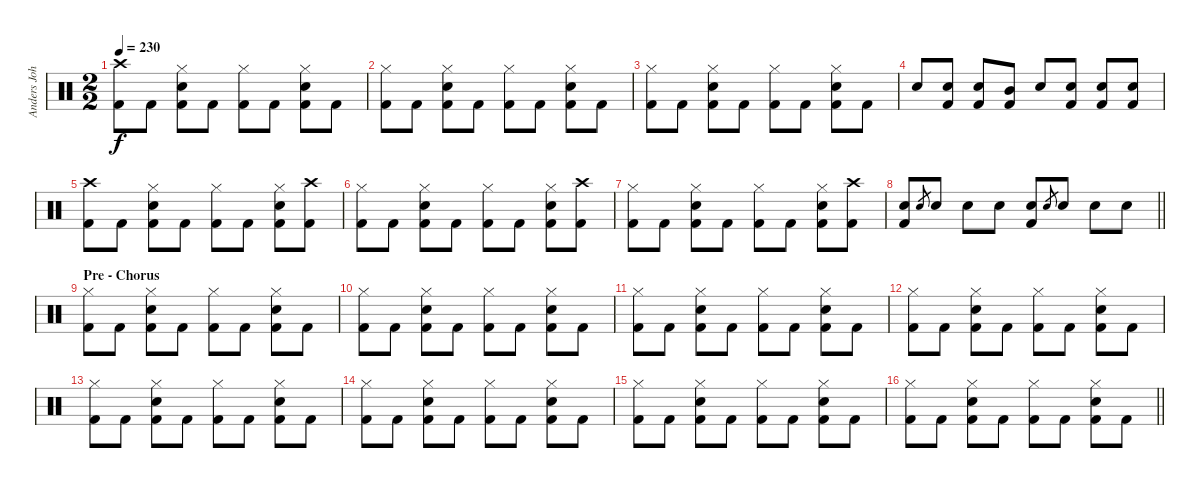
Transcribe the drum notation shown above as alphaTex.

\track ("Anders Johansson" "Anders Joh") {instrument percussion}
\staff {score}
\articulation defaults
\ts (2 2)
\tempo 230
\clef neutral
\ks c
("Crash high (hit)" "Kick (hit) 2").8{dy f} "Kick (hit) 2".8 ("Electric Snare (hit)" "Hi-Hat (closed)" "Kick (hit) 2").8 "Kick (hit) 2".8 ("Hi-Hat (closed)" "Kick (hit) 2").8 "Kick (hit) 2".8 ("Electric Snare (hit)" "Hi-Hat (closed)" "Kick (hit) 2").8 "Kick (hit) 2".8 |
("Hi-Hat (closed)" "Kick (hit) 2").8 "Kick (hit) 2".8 ("Electric Snare (hit)" "Hi-Hat (closed)" "Kick (hit) 2").8 "Kick (hit) 2".8 ("Hi-Hat (closed)" "Kick (hit) 2").8 "Kick (hit) 2".8 ("Electric Snare (hit)" "Hi-Hat (closed)" "Kick (hit) 2").8 "Kick (hit) 2".8 |
("Hi-Hat (closed)" "Kick (hit) 2").8 "Kick (hit) 2".8 ("Electric Snare (hit)" "Hi-Hat (closed)" "Kick (hit) 2").8 "Kick (hit) 2".8 ("Hi-Hat (closed)" "Kick (hit) 2").8 "Kick (hit) 2".8 ("Electric Snare (hit)" "Hi-Hat (closed)" "Kick (hit) 2").8 "Kick (hit) 2".8 |
"Electric Snare (hit)".8 ("Electric Snare (hit)" "Kick (hit) 2").8 ("Electric Snare (hit)" "Kick (hit) 2").8 ("Mid Tom (hit)" "Kick (hit) 2").8 "Electric Snare (hit)".8 ("Electric Snare (hit)" "Kick (hit) 2").8 ("Electric Snare (hit)" "Kick (hit) 2").8 ("Electric Snare (hit)" "Kick (hit) 2").8 |
("Crash high (hit)" "Kick (hit) 2").8 "Kick (hit) 2".8 ("Electric Snare (hit)" "Hi-Hat (closed)" "Kick (hit) 2").8 "Kick (hit) 2".8 ("Hi-Hat (closed)" "Kick (hit) 2").8 "Kick (hit) 2".8 ("Electric Snare (hit)" "Hi-Hat (closed)" "Kick (hit) 2").8 ("Crash high (hit)" "Kick (hit) 2").8 |
("Hi-Hat (closed)" "Kick (hit) 2").8 "Kick (hit) 2".8 ("Electric Snare (hit)" "Hi-Hat (closed)" "Kick (hit) 2").8 "Kick (hit) 2".8 ("Hi-Hat (closed)" "Kick (hit) 2").8 "Kick (hit) 2".8 ("Electric Snare (hit)" "Hi-Hat (closed)" "Kick (hit) 2").8 ("Crash high (hit)" "Kick (hit) 2").8 |
("Hi-Hat (closed)" "Kick (hit) 2").8 "Kick (hit) 2".8 ("Electric Snare (hit)" "Hi-Hat (closed)" "Kick (hit) 2").8 "Kick (hit) 2".8 ("Hi-Hat (closed)" "Kick (hit) 2").8 "Kick (hit) 2".8 ("Electric Snare (hit)" "Hi-Hat (closed)" "Kick (hit) 2").8 ("Crash high (hit)" "Kick (hit) 2").8 |
\barLineRight lightlight
("Electric Snare (hit)" "Kick (hit) 2").8 "Electric Snare (hit)".8{gr} "Electric Snare (hit)".8 "Electric Snare (hit)".8 "Electric Snare (hit)".8 ("Electric Snare (hit)" "Kick (hit) 2").8 "Electric Snare (hit)".8{gr} "Electric Snare (hit)".8 "Electric Snare (hit)".8 "Electric Snare (hit)".8 |
\section ("" "Pre - Chorus")
("Hi-Hat (closed)" "Kick (hit) 2").8 "Kick (hit) 2".8 ("Electric Snare (hit)" "Hi-Hat (closed)" "Kick (hit) 2").8 "Kick (hit) 2".8 ("Hi-Hat (closed)" "Kick (hit) 2").8 "Kick (hit) 2".8 ("Electric Snare (hit)" "Hi-Hat (closed)" "Kick (hit) 2").8 "Kick (hit) 2".8 |
("Hi-Hat (closed)" "Kick (hit) 2").8 "Kick (hit) 2".8 ("Electric Snare (hit)" "Hi-Hat (closed)" "Kick (hit) 2").8 "Kick (hit) 2".8 ("Hi-Hat (closed)" "Kick (hit) 2").8 "Kick (hit) 2".8 ("Electric Snare (hit)" "Hi-Hat (closed)" "Kick (hit) 2").8 "Kick (hit) 2".8 |
("Hi-Hat (closed)" "Kick (hit) 2").8 "Kick (hit) 2".8 ("Electric Snare (hit)" "Hi-Hat (closed)" "Kick (hit) 2").8 "Kick (hit) 2".8 ("Hi-Hat (closed)" "Kick (hit) 2").8 "Kick (hit) 2".8 ("Electric Snare (hit)" "Hi-Hat (closed)" "Kick (hit) 2").8 "Kick (hit) 2".8 |
("Hi-Hat (closed)" "Kick (hit) 2").8 "Kick (hit) 2".8 ("Electric Snare (hit)" "Hi-Hat (closed)" "Kick (hit) 2").8 "Kick (hit) 2".8 ("Hi-Hat (closed)" "Kick (hit) 2").8 "Kick (hit) 2".8 ("Electric Snare (hit)" "Hi-Hat (closed)" "Kick (hit) 2").8 "Kick (hit) 2".8 |
("Hi-Hat (closed)" "Kick (hit) 2").8 "Kick (hit) 2".8 ("Electric Snare (hit)" "Hi-Hat (closed)" "Kick (hit) 2").8 "Kick (hit) 2".8 ("Hi-Hat (closed)" "Kick (hit) 2").8 "Kick (hit) 2".8 ("Electric Snare (hit)" "Hi-Hat (closed)" "Kick (hit) 2").8 "Kick (hit) 2".8 |
("Hi-Hat (closed)" "Kick (hit) 2").8 "Kick (hit) 2".8 ("Electric Snare (hit)" "Hi-Hat (closed)" "Kick (hit) 2").8 "Kick (hit) 2".8 ("Hi-Hat (closed)" "Kick (hit) 2").8 "Kick (hit) 2".8 ("Electric Snare (hit)" "Hi-Hat (closed)" "Kick (hit) 2").8 "Kick (hit) 2".8 |
("Hi-Hat (closed)" "Kick (hit) 2").8 "Kick (hit) 2".8 ("Electric Snare (hit)" "Hi-Hat (closed)" "Kick (hit) 2").8 "Kick (hit) 2".8 ("Hi-Hat (closed)" "Kick (hit) 2").8 "Kick (hit) 2".8 ("Electric Snare (hit)" "Hi-Hat (closed)" "Kick (hit) 2").8 "Kick (hit) 2".8 |
\barLineRight lightlight
("Hi-Hat (closed)" "Kick (hit) 2").8 "Kick (hit) 2".8 ("Electric Snare (hit)" "Hi-Hat (closed)" "Kick (hit) 2").8 "Kick (hit) 2".8 ("Hi-Hat (closed)" "Kick (hit) 2").8 "Kick (hit) 2".8 ("Electric Snare (hit)" "Hi-Hat (closed)" "Kick (hit) 2").8 "Kick (hit) 2".8
